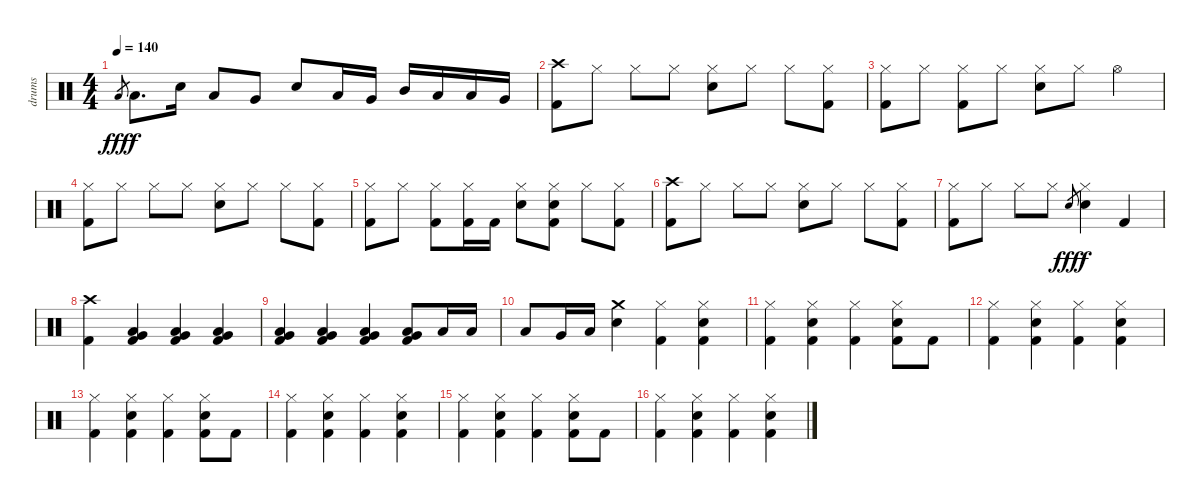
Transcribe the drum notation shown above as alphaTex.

\track ("drums" "drums") {instrument percussion}
\staff {score}
\articulation defaults
\ts (4 4)
\tempo 140
\clef neutral
\ks c "Low Tom (hit)".8{gr dy fff} "Low Tom (hit)".8{d dy f} "Electric Snare (hit)".16 "Low Tom (hit)".8 "Very Low Tom (hit)".8 "Electric Snare (hit)".8 "Low Tom (hit)".16 "Very Low Tom (hit)".16 "Mid Tom (hit)".16 "Low Tom (hit)".16 "Low Tom (hit)".16 "Very Low Tom (hit)".16
|
("Crash high (hit)" "Kick (hit) 2").8 "Hi-Hat (closed)".8 "Hi-Hat (closed)".8 "Hi-Hat (closed)".8 ("Hi-Hat (closed)" "Electric Snare (hit)").8 "Hi-Hat (closed)".8 "Hi-Hat (closed)".8 ("Hi-Hat (closed)" "Kick (hit) 2").8 |
("Hi-Hat (closed)" "Kick (hit) 2").8 "Hi-Hat (closed)".8 ("Hi-Hat (closed)" "Kick (hit) 2").8 "Hi-Hat (closed)".8 ("Hi-Hat (closed)" "Electric Snare (hit)").8 "Hi-Hat (closed)".8 "Hi-Hat (open)".4 |
("Hi-Hat (closed)" "Kick (hit) 2").8 "Hi-Hat (closed)".8 "Hi-Hat (closed)".8 "Hi-Hat (closed)".8 ("Hi-Hat (closed)" "Electric Snare (hit)").8 "Hi-Hat (closed)".8 "Hi-Hat (closed)".8 ("Hi-Hat (closed)" "Kick (hit) 2").8 |
("Hi-Hat (closed)" "Kick (hit) 2").8 "Hi-Hat (closed)".8 ("Hi-Hat (closed)" "Kick (hit) 2").8 ("Hi-Hat (closed)" "Kick (hit) 2").16 "Kick (hit) 2".16 ("Hi-Hat (closed)" "Electric Snare (hit)").8 ("Hi-Hat (closed)" "Electric Snare (hit)" "Kick (hit) 2").8 "Hi-Hat (closed)".8 ("Hi-Hat (closed)" "Kick (hit) 2").8 |
("Crash high (hit)" "Kick (hit) 2").8 "Hi-Hat (closed)".8 "Hi-Hat (closed)".8 "Hi-Hat (closed)".8 ("Hi-Hat (closed)" "Electric Snare (hit)").8 "Hi-Hat (closed)".8 "Hi-Hat (closed)".8 ("Hi-Hat (closed)" "Kick (hit) 2").8 |
("Hi-Hat (closed)" "Kick (hit) 2").8 "Hi-Hat (closed)".8 "Hi-Hat (closed)".8 "Hi-Hat (closed)".8 "Electric Snare (hit)".8{gr dy fff} ("Hi-Hat (closed)" "Electric Snare (hit)").4{dy f} "Kick (hit) 2".4 |
("Crash high (hit)" "Kick (hit) 2").4 ("Low Tom (hit)" "Very Low Tom (hit)" "Kick (hit) 2").4 ("Low Tom (hit)" "Very Low Tom (hit)" "Kick (hit) 2").4 ("Low Tom (hit)" "Very Low Tom (hit)" "Kick (hit) 2").4 |
("Low Tom (hit)" "Very Low Tom (hit)" "Kick (hit) 2").4 ("Low Tom (hit)" "Very Low Tom (hit)" "Kick (hit) 2").4 ("Low Tom (hit)" "Very Low Tom (hit)" "Kick (hit) 2").4 ("Low Tom (hit)" "Very Low Tom (hit)" "Kick (hit) 2").8 "Low Tom (hit)".16 "Low Tom (hit)".16 |
"Low Tom (hit)".8 "Very Low Tom (hit)".16 "Low Floor Tom (hit)".16 ("Crash medium (hit)" "Electric Snare (hit)").4 ("Hi-Hat (closed)" "Kick (hit) 2").4 ("Hi-Hat (closed)" "Electric Snare (hit)" "Kick (hit) 2").4 |
("Hi-Hat (closed)" "Kick (hit) 2").4 ("Hi-Hat (closed)" "Electric Snare (hit)" "Kick (hit) 2").4 ("Hi-Hat (closed)" "Kick (hit) 2").4 ("Hi-Hat (closed)" "Electric Snare (hit)" "Kick (hit) 2").8 "Kick (hit) 2".8 |
("Hi-Hat (closed)" "Kick (hit) 2").4 ("Hi-Hat (closed)" "Electric Snare (hit)" "Kick (hit) 2").4 ("Hi-Hat (closed)" "Kick (hit) 2").4 ("Hi-Hat (closed)" "Electric Snare (hit)" "Kick (hit) 2").4 |
("Hi-Hat (closed)" "Kick (hit) 2").4 ("Hi-Hat (closed)" "Electric Snare (hit)" "Kick (hit) 2").4 ("Hi-Hat (closed)" "Kick (hit) 2").4 ("Hi-Hat (closed)" "Electric Snare (hit)" "Kick (hit) 2").8 "Kick (hit) 2".8 |
("Hi-Hat (closed)" "Kick (hit) 2").4 ("Hi-Hat (closed)" "Electric Snare (hit)" "Kick (hit) 2").4 ("Hi-Hat (closed)" "Kick (hit) 2").4 ("Hi-Hat (closed)" "Electric Snare (hit)" "Kick (hit) 2").4 |
("Hi-Hat (closed)" "Kick (hit) 2").4 ("Hi-Hat (closed)" "Electric Snare (hit)" "Kick (hit) 2").4 ("Hi-Hat (closed)" "Kick (hit) 2").4 ("Hi-Hat (closed)" "Electric Snare (hit)" "Kick (hit) 2").8 "Kick (hit) 2".8 |
("Hi-Hat (closed)" "Kick (hit) 2").4 ("Hi-Hat (closed)" "Electric Snare (hit)" "Kick (hit) 2").4 ("Hi-Hat (closed)" "Kick (hit) 2").4 ("Hi-Hat (closed)" "Electric Snare (hit)" "Kick (hit) 2").4
